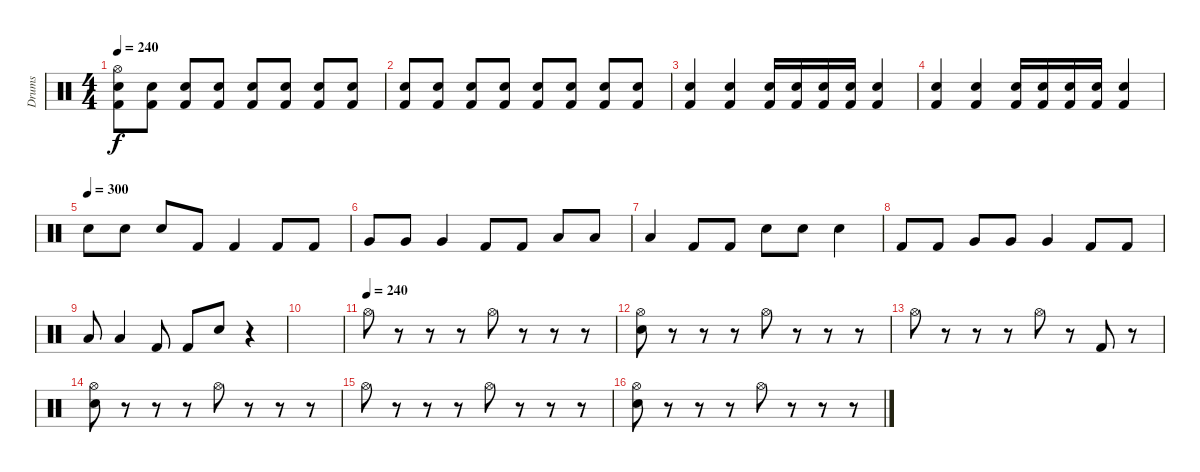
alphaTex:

\track ("Drums" "Drums") {instrument percussion}
\staff {score}
\articulation defaults
\ts (4 4)
\tempo 240
\clef neutral
\ks c
("Hi-Hat (open)" "Snare (hit) 2" "Kick (hit) 2").8{dy f} ("Snare (hit) 2" "Kick (hit) 2").8 ("Snare (hit) 2" "Kick (hit) 2").8 ("Snare (hit) 2" "Kick (hit) 2").8 ("Snare (hit) 2" "Kick (hit) 2").8 ("Snare (hit) 2" "Kick (hit) 2").8 ("Snare (hit) 2" "Kick (hit) 2").8 ("Snare (hit) 2" "Kick (hit) 2").8 |
("Snare (hit) 2" "Kick (hit) 2").8 ("Snare (hit) 2" "Kick (hit) 2").8 ("Snare (hit) 2" "Kick (hit) 2").8 ("Snare (hit) 2" "Kick (hit) 2").8 ("Snare (hit) 2" "Kick (hit) 2").8 ("Snare (hit) 2" "Kick (hit) 2").8 ("Snare (hit) 2" "Kick (hit) 2").8 ("Snare (hit) 2" "Kick (hit) 2").8 |
("Snare (hit) 2" "Kick (hit) 2").4 ("Snare (hit) 2" "Kick (hit) 2").4 ("Snare (hit) 2" "Kick (hit) 2").16 ("Snare (hit) 2" "Kick (hit) 2").16 ("Snare (hit) 2" "Kick (hit) 2").16 ("Snare (hit) 2" "Kick (hit) 2").16 ("Snare (hit) 2" "Kick (hit) 2").4 |
("Snare (hit) 2" "Kick (hit) 2").4 ("Snare (hit) 2" "Kick (hit) 2").4 ("Snare (hit) 2" "Kick (hit) 2").16 ("Snare (hit) 2" "Kick (hit) 2").16 ("Snare (hit) 2" "Kick (hit) 2").16 ("Snare (hit) 2" "Kick (hit) 2").16 ("Snare (hit) 2" "Kick (hit) 2").4 |
\tempo (300)
"Snare (hit) 2".8 "Snare (hit) 2".8 "Snare (hit) 2".8 "Kick (hit) 2".8 "Kick (hit) 2".4 "Kick (hit) 2".8 "Kick (hit) 2".8 |
"Very Low Tom (hit)".8 "Very Low Tom (hit)".8 "Very Low Tom (hit)".4 "Kick (hit) 2".8 "Kick (hit) 2".8 "Low Floor Tom (hit)".8 "Low Floor Tom (hit)".8 |
"Low Floor Tom (hit)".4 "Kick (hit) 2".8 "Kick (hit) 2".8 "Snare (hit) 2".8 "Snare (hit) 2".8 "Snare (hit) 2".4 |
"Kick (hit) 2".8 "Kick (hit) 2".8 "Very Low Tom (hit)".8 "Very Low Tom (hit)".8 "Very Low Tom (hit)".4 "Kick (hit) 2".8 "Kick (hit) 2".8 |
"Low Floor Tom (hit)".8 "Low Floor Tom (hit)".4 "Kick (hit) 2".8 "Kick (hit) 2".8 "Snare (hit) 2".8 r.4 |
|
\tempo (240)
"Hi-Hat (open)".8 r.8 r.8 r.8 "Hi-Hat (open)".8 r.8 r.8 r.8 |
("Hi-Hat (open)" "Snare (hit) 2").8 r.8 r.8 r.8 "Hi-Hat (open)".8 r.8 r.8 r.8 |
"Hi-Hat (open)".8 r.8 r.8 r.8 "Hi-Hat (open)".8 r.8 "Kick (hit) 2".8 r.8 |
("Hi-Hat (open)" "Snare (hit) 2").8 r.8 r.8 r.8 "Hi-Hat (open)".8 r.8 r.8 r.8 |
"Hi-Hat (open)".8 r.8 r.8 r.8 "Hi-Hat (open)".8 r.8 r.8 r.8 |
("Hi-Hat (open)" "Snare (hit) 2").8 r.8 r.8 r.8 "Hi-Hat (open)".8 r.8 r.8 r.8
